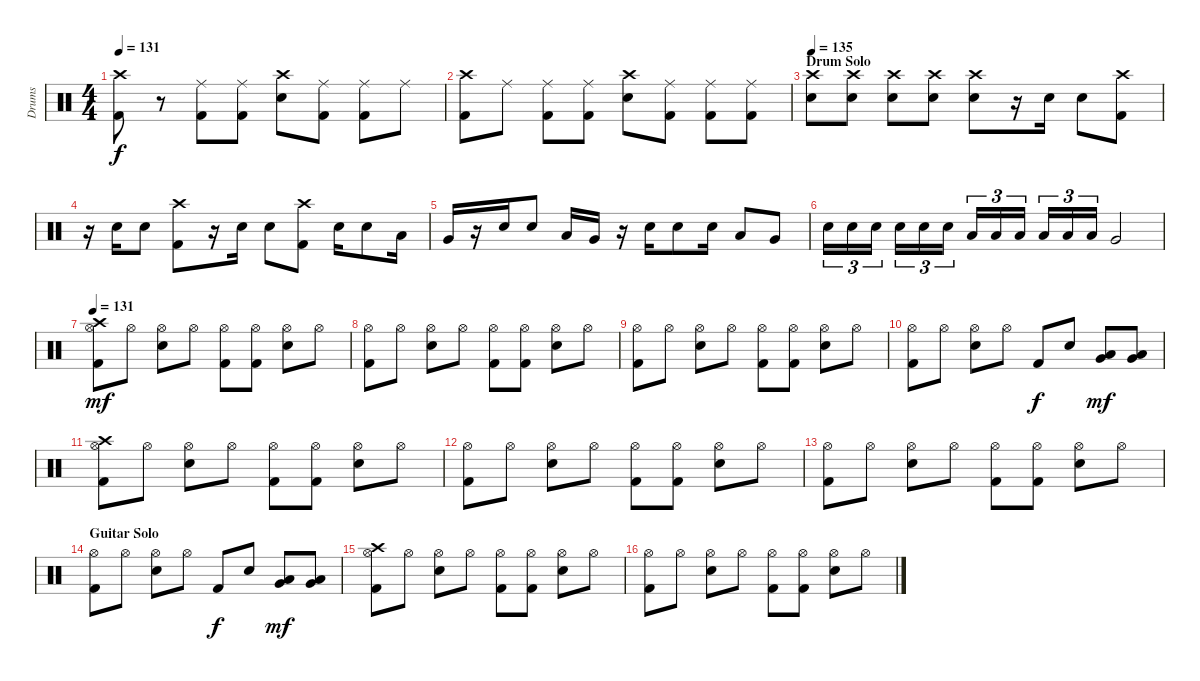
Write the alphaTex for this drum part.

\track ("Drums" "Drums") {instrument percussion}
\staff {score}
\articulation defaults
\ts (4 4)
\tempo 131
\clef neutral
\ks c
("Kick (hit) 2" "Crash high (hit)").8{dy f} r.8 ("Kick (hit) 2" "Ride (middle)").8 ("Kick (hit) 2" "Ride (middle)").8 ("Electric Snare (hit)" "Crash high (hit)").8 ("Kick (hit) 2" "Ride (middle)").8 ("Kick (hit) 2" "Ride (middle)").8 "Ride (middle)".8 |
("Kick (hit) 2" "Crash high (hit)").8 "Ride (middle)".8 ("Kick (hit) 2" "Ride (middle)").8 ("Kick (hit) 2" "Ride (middle)").8 ("Electric Snare (hit)" "Crash high (hit)").8 ("Kick (hit) 2" "Ride (middle)").8 ("Kick (hit) 2" "Ride (middle)").8 ("Kick (hit) 2" "Ride (middle)").8 |
\section ("" "Drum Solo")
\tempo 135
("Electric Snare (hit)" "Crash high (hit)").8 ("Electric Snare (hit)" "Crash high (hit)").8 ("Electric Snare (hit)" "Crash high (hit)").8 ("Electric Snare (hit)" "Crash high (hit)").8 ("Electric Snare (hit)" "Crash high (hit)").8 r.16 "Electric Snare (hit)".16 "Electric Snare (hit)".8 ("Kick (hit) 2" "Crash high (hit)").8 |
r.16 "Electric Snare (hit)".16 "Electric Snare (hit)".8 ("Kick (hit) 2" "Crash high (hit)").8 r.16 "Electric Snare (hit)".16 "Electric Snare (hit)".8 ("Kick (hit) 2" "Crash high (hit)").8 "Electric Snare (hit)".16 "Electric Snare (hit)".8 "Low Tom (hit)".16 |
"Very Low Tom (hit)".16 r.16 "Electric Snare (hit)".16 "Electric Snare (hit)".8 "Low Tom (hit)".16 "Very Low Tom (hit)".16 r.16 "Electric Snare (hit)".16 "Electric Snare (hit)".8 "Electric Snare (hit)".16 "Low Tom (hit)".8 "Very Low Tom (hit)".8 |
"Electric Snare (hit)".16{tu (3 2)} "Electric Snare (hit)".16{tu (3 2)} "Electric Snare (hit)".16{tu (3 2)} "Electric Snare (hit)".16{tu (3 2)} "Electric Snare (hit)".16{tu (3 2)} "Electric Snare (hit)".16{tu (3 2)} "Low Tom (hit)".16{tu (3 2)} "Low Tom (hit)".16{tu (3 2)} "Low Tom (hit)".16{tu (3 2)} "Low Tom (hit)".16{tu (3 2)} "Low Tom (hit)".16{tu (3 2)} "Low Tom (hit)".16{tu (3 2)} "Very Low Tom (hit)".2 |
\tempo 131
("Kick (hit) 2" "Crash high (hit)" "Hi-Hat (open)").8{dy mf} "Hi-Hat (open)".8 ("Electric Snare (hit)" "Hi-Hat (open)").8 "Hi-Hat (open)".8 ("Kick (hit) 2" "Hi-Hat (open)").8 ("Kick (hit) 2" "Hi-Hat (open)").8 ("Electric Snare (hit)" "Hi-Hat (open)").8 "Hi-Hat (open)".8 |
("Kick (hit) 2" "Hi-Hat (open)").8 "Hi-Hat (open)".8 ("Electric Snare (hit)" "Hi-Hat (open)").8 "Hi-Hat (open)".8 ("Kick (hit) 2" "Hi-Hat (open)").8 ("Kick (hit) 2" "Hi-Hat (open)").8 ("Electric Snare (hit)" "Hi-Hat (open)").8 "Hi-Hat (open)".8 |
("Kick (hit) 2" "Hi-Hat (open)").8 "Hi-Hat (open)".8 ("Electric Snare (hit)" "Hi-Hat (open)").8 "Hi-Hat (open)".8 ("Kick (hit) 2" "Hi-Hat (open)").8 ("Kick (hit) 2" "Hi-Hat (open)").8 ("Electric Snare (hit)" "Hi-Hat (open)").8 "Hi-Hat (open)".8 |
("Kick (hit) 2" "Hi-Hat (open)").8 "Hi-Hat (open)".8 ("Electric Snare (hit)" "Hi-Hat (open)").8 "Hi-Hat (open)".8 "Kick (hit) 2".8{dy f} "Electric Snare (hit)".8 ("Low Tom (hit)" "Very Low Tom (hit)").8{dy mf} ("Low Tom (hit)" "Very Low Tom (hit)").8 |
("Kick (hit) 2" "Crash high (hit)" "Hi-Hat (open)").8 "Hi-Hat (open)".8 ("Electric Snare (hit)" "Hi-Hat (open)").8 "Hi-Hat (open)".8 ("Kick (hit) 2" "Hi-Hat (open)").8 ("Kick (hit) 2" "Hi-Hat (open)").8 ("Electric Snare (hit)" "Hi-Hat (open)").8 "Hi-Hat (open)".8 |
("Kick (hit) 2" "Hi-Hat (open)").8 "Hi-Hat (open)".8 ("Electric Snare (hit)" "Hi-Hat (open)").8 "Hi-Hat (open)".8 ("Kick (hit) 2" "Hi-Hat (open)").8 ("Kick (hit) 2" "Hi-Hat (open)").8 ("Electric Snare (hit)" "Hi-Hat (open)").8 "Hi-Hat (open)".8 |
("Kick (hit) 2" "Hi-Hat (open)").8 "Hi-Hat (open)".8 ("Electric Snare (hit)" "Hi-Hat (open)").8 "Hi-Hat (open)".8 ("Kick (hit) 2" "Hi-Hat (open)").8 ("Kick (hit) 2" "Hi-Hat (open)").8 ("Electric Snare (hit)" "Hi-Hat (open)").8 "Hi-Hat (open)".8 |
\section ("" "Guitar Solo")
("Kick (hit) 2" "Hi-Hat (open)").8 "Hi-Hat (open)".8 ("Electric Snare (hit)" "Hi-Hat (open)").8 "Hi-Hat (open)".8 "Kick (hit) 2".8{dy f} "Electric Snare (hit)".8 ("Low Tom (hit)" "Very Low Tom (hit)").8{dy mf} ("Low Tom (hit)" "Very Low Tom (hit)").8 |
("Kick (hit) 2" "Crash high (hit)" "Hi-Hat (open)").8 "Hi-Hat (open)".8 ("Electric Snare (hit)" "Hi-Hat (open)").8 "Hi-Hat (open)".8 ("Kick (hit) 2" "Hi-Hat (open)").8 ("Kick (hit) 2" "Hi-Hat (open)").8 ("Electric Snare (hit)" "Hi-Hat (open)").8 "Hi-Hat (open)".8 |
("Kick (hit) 2" "Hi-Hat (open)").8 "Hi-Hat (open)".8 ("Electric Snare (hit)" "Hi-Hat (open)").8 "Hi-Hat (open)".8 ("Kick (hit) 2" "Hi-Hat (open)").8 ("Kick (hit) 2" "Hi-Hat (open)").8 ("Electric Snare (hit)" "Hi-Hat (open)").8 "Hi-Hat (open)".8
